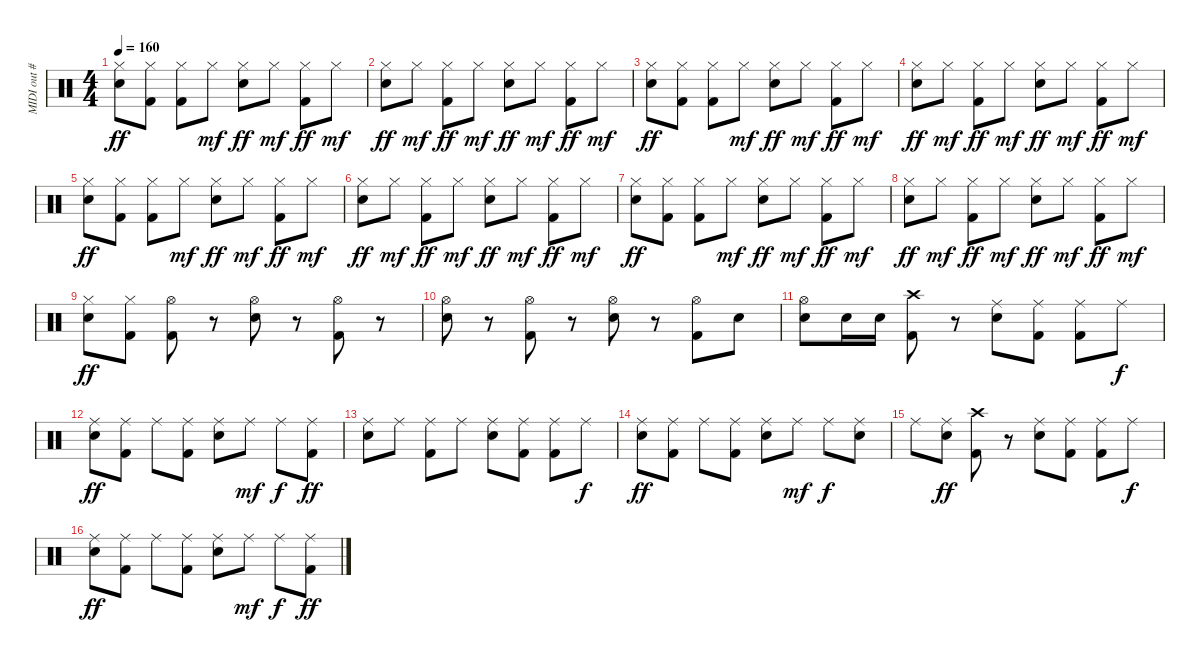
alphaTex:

\track ("MIDI out #4" "MIDI out #") {instrument percussion}
\staff {score}
\articulation defaults
\ts (4 4)
\tempo 160
\clef neutral
\ks c
("Hi-Hat (closed)" "Snare (hit) 2").8{dy ff} ("Hi-Hat (closed)" "Kick (hit) 2").8 ("Hi-Hat (closed)" "Kick (hit) 2").8 "Hi-Hat (closed)".8{dy mf} ("Hi-Hat (closed)" "Snare (hit) 2").8{dy ff} "Hi-Hat (closed)".8{dy mf} ("Hi-Hat (closed)" "Kick (hit) 2").8{dy ff} "Hi-Hat (closed)".8{dy mf} |
("Hi-Hat (closed)" "Snare (hit) 2").8{dy ff} "Hi-Hat (closed)".8{dy mf} ("Hi-Hat (closed)" "Kick (hit) 2").8{dy ff} "Hi-Hat (closed)".8{dy mf} ("Hi-Hat (closed)" "Snare (hit) 2").8{dy ff} "Hi-Hat (closed)".8{dy mf} ("Hi-Hat (closed)" "Kick (hit) 2").8{dy ff} "Hi-Hat (closed)".8{dy mf} |
("Hi-Hat (closed)" "Snare (hit) 2").8{dy ff} ("Hi-Hat (closed)" "Kick (hit) 2").8 ("Hi-Hat (closed)" "Kick (hit) 2").8 "Hi-Hat (closed)".8{dy mf} ("Hi-Hat (closed)" "Snare (hit) 2").8{dy ff} "Hi-Hat (closed)".8{dy mf} ("Hi-Hat (closed)" "Kick (hit) 2").8{dy ff} "Hi-Hat (closed)".8{dy mf} |
("Hi-Hat (closed)" "Snare (hit) 2").8{dy ff} "Hi-Hat (closed)".8{dy mf} ("Hi-Hat (closed)" "Kick (hit) 2").8{dy ff} "Hi-Hat (closed)".8{dy mf} ("Hi-Hat (closed)" "Snare (hit) 2").8{dy ff} "Hi-Hat (closed)".8{dy mf} ("Hi-Hat (closed)" "Kick (hit) 2").8{dy ff} "Hi-Hat (closed)".8{dy mf} |
("Hi-Hat (closed)" "Snare (hit) 2").8{dy ff} ("Hi-Hat (closed)" "Kick (hit) 2").8 ("Hi-Hat (closed)" "Kick (hit) 2").8 "Hi-Hat (closed)".8{dy mf} ("Hi-Hat (closed)" "Snare (hit) 2").8{dy ff} "Hi-Hat (closed)".8{dy mf} ("Hi-Hat (closed)" "Kick (hit) 2").8{dy ff} "Hi-Hat (closed)".8{dy mf} |
("Hi-Hat (closed)" "Snare (hit) 2").8{dy ff} "Hi-Hat (closed)".8{dy mf} ("Hi-Hat (closed)" "Kick (hit) 2").8{dy ff} "Hi-Hat (closed)".8{dy mf} ("Hi-Hat (closed)" "Snare (hit) 2").8{dy ff} "Hi-Hat (closed)".8{dy mf} ("Hi-Hat (closed)" "Kick (hit) 2").8{dy ff} "Hi-Hat (closed)".8{dy mf} |
("Hi-Hat (closed)" "Snare (hit) 2").8{dy ff} ("Hi-Hat (closed)" "Kick (hit) 2").8 ("Hi-Hat (closed)" "Kick (hit) 2").8 "Hi-Hat (closed)".8{dy mf} ("Hi-Hat (closed)" "Snare (hit) 2").8{dy ff} "Hi-Hat (closed)".8{dy mf} ("Hi-Hat (closed)" "Kick (hit) 2").8{dy ff} "Hi-Hat (closed)".8{dy mf} |
("Hi-Hat (closed)" "Snare (hit) 2").8{dy ff} "Hi-Hat (closed)".8{dy mf} ("Hi-Hat (closed)" "Kick (hit) 2").8{dy ff} "Hi-Hat (closed)".8{dy mf} ("Hi-Hat (closed)" "Snare (hit) 2").8{dy ff} "Hi-Hat (closed)".8{dy mf} ("Hi-Hat (closed)" "Kick (hit) 2").8{dy ff} "Hi-Hat (closed)".8{dy mf} |
("Hi-Hat (closed)" "Snare (hit) 2").8{dy ff} ("Hi-Hat (closed)" "Kick (hit) 2").8 ("Hi-Hat (open)" "Kick (hit) 2").8 r.8 ("Hi-Hat (open)" "Snare (hit) 2").8 r.8 ("Hi-Hat (open)" "Kick (hit) 2").8 r.8 |
("Hi-Hat (open)" "Snare (hit) 2").8 r.8 ("Hi-Hat (open)" "Kick (hit) 2").8 r.8 ("Hi-Hat (open)" "Snare (hit) 2").8 r.8 ("Hi-Hat (open)" "Kick (hit) 2").8 "Snare (hit) 2".8 |
("Snare (hit) 2" "Hi-Hat (open)").8 "Snare (hit) 2".16 "Snare (hit) 2".16 ("Crash high (hit)" "Kick (hit) 2").8 r.8 ("Ride (middle)" "Snare (hit) 2").8 ("Ride (middle)" "Kick (hit) 2").8 ("Ride (middle)" "Kick (hit) 2").8 "Ride (middle)".8{dy f} |
("Ride (middle)" "Snare (hit) 2").8{dy ff} ("Ride (middle)" "Kick (hit) 2").8 "Ride (middle)".8 ("Ride (middle)" "Kick (hit) 2").8 ("Ride (middle)" "Snare (hit) 2").8 "Ride (middle)".8{dy mf} "Ride (middle)".8{dy f} ("Ride (middle)" "Kick (hit) 2").8{dy ff} |
("Ride (middle)" "Snare (hit) 2").8 "Ride (middle)".8 ("Ride (middle)" "Kick (hit) 2").8 "Ride (middle)".8 ("Ride (middle)" "Snare (hit) 2").8 ("Ride (middle)" "Kick (hit) 2").8 ("Ride (middle)" "Kick (hit) 2").8 "Ride (middle)".8{dy f} |
("Ride (middle)" "Snare (hit) 2").8{dy ff} ("Ride (middle)" "Kick (hit) 2").8 "Ride (middle)".8 ("Ride (middle)" "Kick (hit) 2").8 ("Ride (middle)" "Snare (hit) 2").8 "Ride (middle)".8{dy mf} "Ride (middle)".8{dy f} ("Snare (hit) 2" "Ride (middle)").8 |
"Ride (middle)".8 ("Snare (hit) 2" "Ride (middle)").8{dy ff} ("Crash high (hit)" "Kick (hit) 2").8 r.8 ("Ride (middle)" "Snare (hit) 2").8 ("Ride (middle)" "Kick (hit) 2").8 ("Ride (middle)" "Kick (hit) 2").8 "Ride (middle)".8{dy f} |
("Ride (middle)" "Snare (hit) 2").8{dy ff} ("Ride (middle)" "Kick (hit) 2").8 "Ride (middle)".8 ("Ride (middle)" "Kick (hit) 2").8 ("Ride (middle)" "Snare (hit) 2").8 "Ride (middle)".8{dy mf} "Ride (middle)".8{dy f} ("Ride (middle)" "Kick (hit) 2").8{dy ff}
